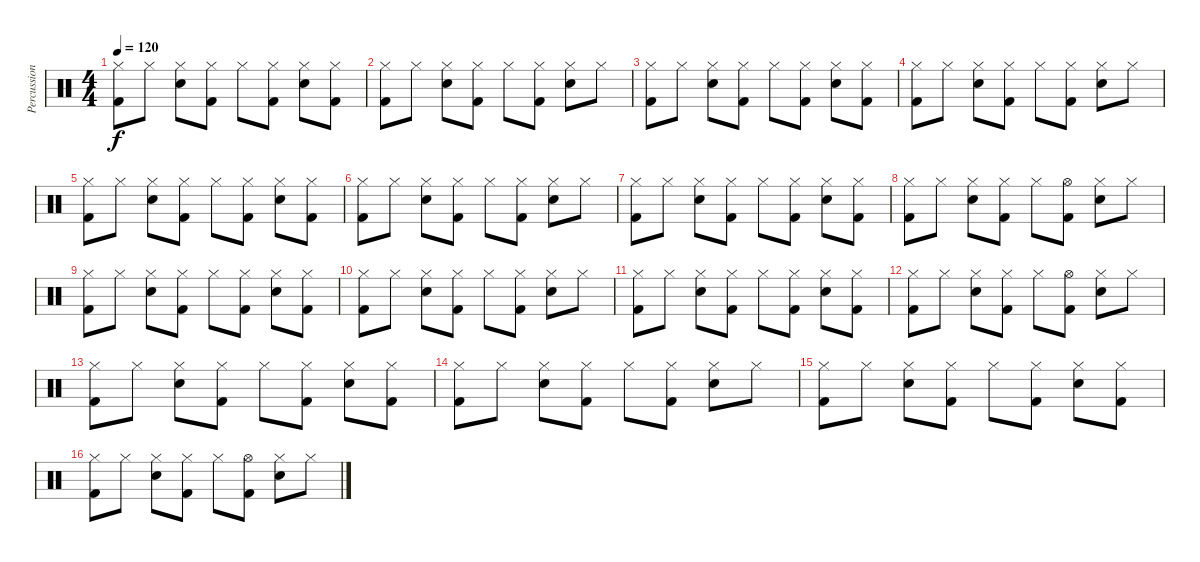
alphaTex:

\track ("Percussions" "Percussion") {instrument percussion}
\staff {score}
\articulation defaults
\ts (4 4)
\tempo 120
\clef neutral
\ks c
("Hi-Hat (closed)" "Kick (hit) 2").8{dy f} "Hi-Hat (closed)".8 ("Hi-Hat (closed)" "Electric Snare (hit)").8 ("Hi-Hat (closed)" "Kick (hit) 2").8 "Hi-Hat (closed)".8 ("Hi-Hat (closed)" "Kick (hit) 2").8 ("Hi-Hat (closed)" "Electric Snare (hit)").8 ("Hi-Hat (closed)" "Kick (hit) 2").8 |
("Hi-Hat (closed)" "Kick (hit) 2").8 "Hi-Hat (closed)".8 ("Hi-Hat (closed)" "Electric Snare (hit)").8 ("Hi-Hat (closed)" "Kick (hit) 2").8 "Hi-Hat (closed)".8 ("Hi-Hat (closed)" "Kick (hit) 2").8 ("Hi-Hat (closed)" "Electric Snare (hit)").8 "Hi-Hat (closed)".8 |
("Hi-Hat (closed)" "Kick (hit) 2").8 "Hi-Hat (closed)".8 ("Hi-Hat (closed)" "Electric Snare (hit)").8 ("Hi-Hat (closed)" "Kick (hit) 2").8 "Hi-Hat (closed)".8 ("Hi-Hat (closed)" "Kick (hit) 2").8 ("Hi-Hat (closed)" "Electric Snare (hit)").8 ("Hi-Hat (closed)" "Kick (hit) 2").8 |
("Hi-Hat (closed)" "Kick (hit) 2").8 "Hi-Hat (closed)".8 ("Hi-Hat (closed)" "Electric Snare (hit)").8 ("Hi-Hat (closed)" "Kick (hit) 2").8 "Hi-Hat (closed)".8 ("Hi-Hat (closed)" "Kick (hit) 2").8 ("Hi-Hat (closed)" "Electric Snare (hit)").8 "Hi-Hat (closed)".8 |
("Hi-Hat (closed)" "Kick (hit) 2").8 "Hi-Hat (closed)".8 ("Hi-Hat (closed)" "Electric Snare (hit)").8 ("Hi-Hat (closed)" "Kick (hit) 2").8 "Hi-Hat (closed)".8 ("Hi-Hat (closed)" "Kick (hit) 2").8 ("Hi-Hat (closed)" "Electric Snare (hit)").8 ("Hi-Hat (closed)" "Kick (hit) 2").8 |
("Hi-Hat (closed)" "Kick (hit) 2").8 "Hi-Hat (closed)".8 ("Hi-Hat (closed)" "Electric Snare (hit)").8 ("Hi-Hat (closed)" "Kick (hit) 2").8 "Hi-Hat (closed)".8 ("Hi-Hat (closed)" "Kick (hit) 2").8 ("Hi-Hat (closed)" "Electric Snare (hit)").8 "Hi-Hat (closed)".8 |
("Hi-Hat (closed)" "Kick (hit) 2").8 "Hi-Hat (closed)".8 ("Hi-Hat (closed)" "Electric Snare (hit)").8 ("Hi-Hat (closed)" "Kick (hit) 2").8 "Hi-Hat (closed)".8 ("Hi-Hat (closed)" "Kick (hit) 2").8 ("Hi-Hat (closed)" "Electric Snare (hit)").8 ("Hi-Hat (closed)" "Kick (hit) 2").8 |
("Hi-Hat (closed)" "Kick (hit) 2").8 "Hi-Hat (closed)".8 ("Hi-Hat (closed)" "Electric Snare (hit)").8 ("Hi-Hat (closed)" "Kick (hit) 2").8 "Hi-Hat (closed)".8 ("Hi-Hat (open)" "Kick (hit) 2").8 ("Hi-Hat (closed)" "Electric Snare (hit)").8 "Hi-Hat (closed)".8 |
("Hi-Hat (closed)" "Kick (hit) 2").8 "Hi-Hat (closed)".8 ("Hi-Hat (closed)" "Electric Snare (hit)").8 ("Hi-Hat (closed)" "Kick (hit) 2").8 "Hi-Hat (closed)".8 ("Hi-Hat (closed)" "Kick (hit) 2").8 ("Hi-Hat (closed)" "Electric Snare (hit)").8 ("Hi-Hat (closed)" "Kick (hit) 2").8 |
("Hi-Hat (closed)" "Kick (hit) 2").8 "Hi-Hat (closed)".8 ("Hi-Hat (closed)" "Electric Snare (hit)").8 ("Hi-Hat (closed)" "Kick (hit) 2").8 "Hi-Hat (closed)".8 ("Hi-Hat (closed)" "Kick (hit) 2").8 ("Hi-Hat (closed)" "Electric Snare (hit)").8 "Hi-Hat (closed)".8 |
("Hi-Hat (closed)" "Kick (hit) 2").8 "Hi-Hat (closed)".8 ("Hi-Hat (closed)" "Electric Snare (hit)").8 ("Hi-Hat (closed)" "Kick (hit) 2").8 "Hi-Hat (closed)".8 ("Hi-Hat (closed)" "Kick (hit) 2").8 ("Hi-Hat (closed)" "Electric Snare (hit)").8 ("Hi-Hat (closed)" "Kick (hit) 2").8 |
("Hi-Hat (closed)" "Kick (hit) 2").8 "Hi-Hat (closed)".8 ("Hi-Hat (closed)" "Electric Snare (hit)").8 ("Hi-Hat (closed)" "Kick (hit) 2").8 "Hi-Hat (closed)".8 ("Hi-Hat (open)" "Kick (hit) 2").8 ("Hi-Hat (closed)" "Electric Snare (hit)").8 "Hi-Hat (closed)".8 |
("Hi-Hat (closed)" "Kick (hit) 2").8 "Hi-Hat (closed)".8 ("Hi-Hat (closed)" "Electric Snare (hit)").8 ("Hi-Hat (closed)" "Kick (hit) 2").8 "Hi-Hat (closed)".8 ("Hi-Hat (closed)" "Kick (hit) 2").8 ("Hi-Hat (closed)" "Electric Snare (hit)").8 ("Hi-Hat (closed)" "Kick (hit) 2").8 |
("Hi-Hat (closed)" "Kick (hit) 2").8 "Hi-Hat (closed)".8 ("Hi-Hat (closed)" "Electric Snare (hit)").8 ("Hi-Hat (closed)" "Kick (hit) 2").8 "Hi-Hat (closed)".8 ("Hi-Hat (closed)" "Kick (hit) 2").8 ("Hi-Hat (closed)" "Electric Snare (hit)").8 "Hi-Hat (closed)".8 |
("Hi-Hat (closed)" "Kick (hit) 2").8 "Hi-Hat (closed)".8 ("Hi-Hat (closed)" "Electric Snare (hit)").8 ("Hi-Hat (closed)" "Kick (hit) 2").8 "Hi-Hat (closed)".8 ("Hi-Hat (closed)" "Kick (hit) 2").8 ("Hi-Hat (closed)" "Electric Snare (hit)").8 ("Hi-Hat (closed)" "Kick (hit) 2").8 |
("Hi-Hat (closed)" "Kick (hit) 2").8 "Hi-Hat (closed)".8 ("Hi-Hat (closed)" "Electric Snare (hit)").8 ("Hi-Hat (closed)" "Kick (hit) 2").8 "Hi-Hat (closed)".8 ("Hi-Hat (open)" "Kick (hit) 2").8 ("Hi-Hat (closed)" "Electric Snare (hit)").8 "Hi-Hat (closed)".8
